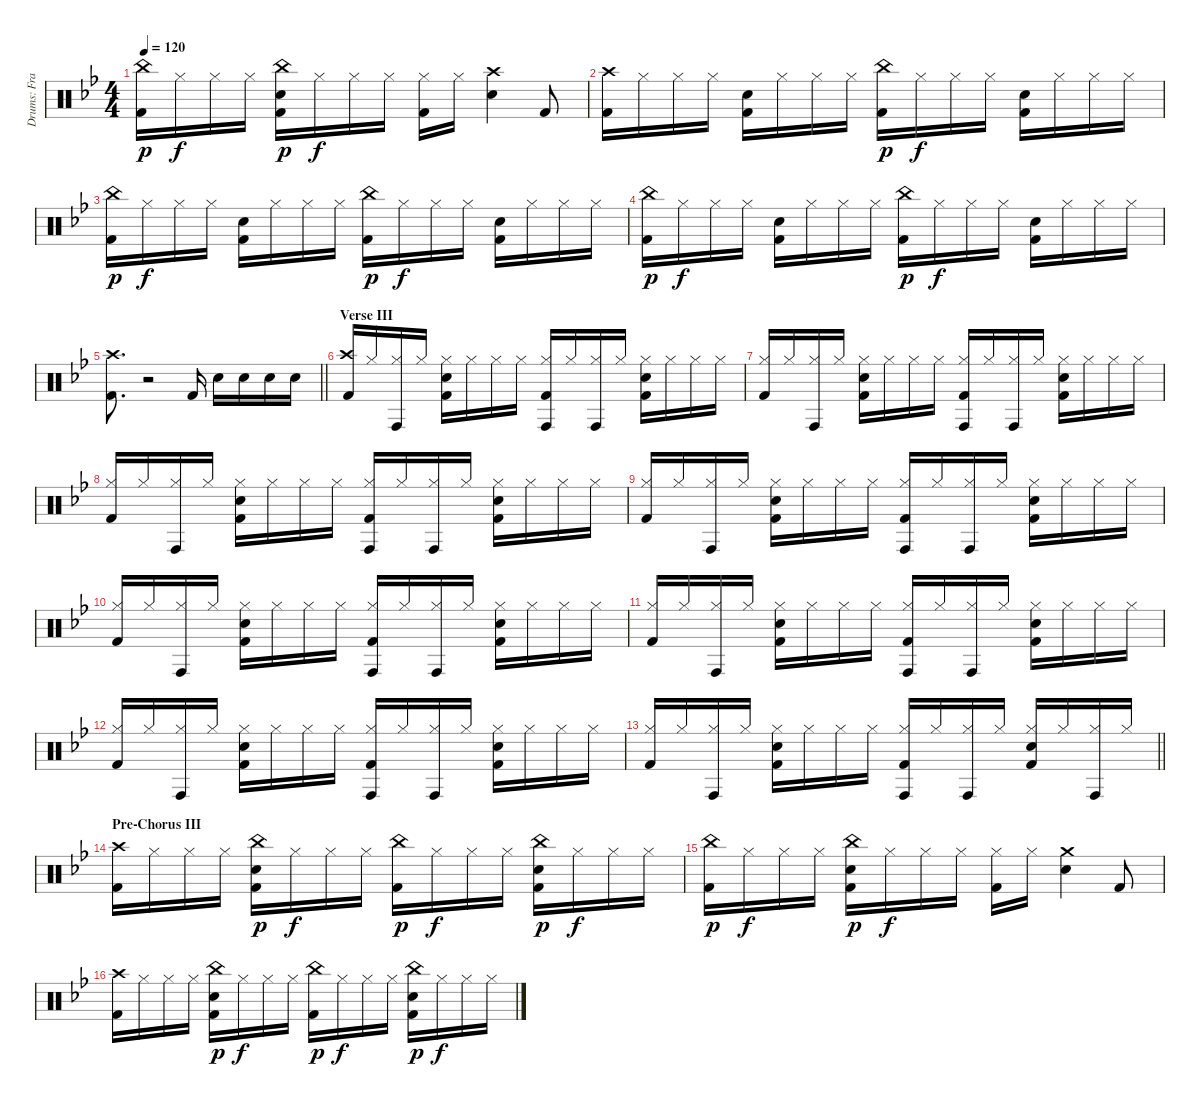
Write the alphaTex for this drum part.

\track ("Drums: Frank" "Drums: Fra") {instrument percussion}
\staff {score}
\articulation defaults
\ts (4 4)
\tempo 120
\clef neutral
\ks bb
("China (hit)" "Kick (hit) 2").16{dy p} "Hi-Hat (closed)".16{dy f} "Hi-Hat (closed)".16 "Hi-Hat (closed)".16 ("China (hit)" "Electric Snare (hit)" "Kick (hit) 2").16{dy p} "Hi-Hat (closed)".16{dy f} "Hi-Hat (closed)".16 "Hi-Hat (closed)".16 ("Hi-Hat (closed)" "Kick (hit) 2").16 "Hi-Hat (closed)".16 ("Crash high (hit)" "Electric Snare (hit)").4 "Kick (hit) 2".8 |
("Crash high (hit)" "Kick (hit) 2").16 "Hi-Hat (closed)".16 "Hi-Hat (closed)".16 "Hi-Hat (closed)".16 ("Electric Snare (hit)" "Kick (hit) 2").16 "Hi-Hat (closed)".16 "Hi-Hat (closed)".16 "Hi-Hat (closed)".16 ("China (hit)" "Kick (hit) 2").16{dy p} "Hi-Hat (closed)".16{dy f} "Hi-Hat (closed)".16 "Hi-Hat (closed)".16 ("Electric Snare (hit)" "Kick (hit) 2").16 "Hi-Hat (closed)".16 "Hi-Hat (closed)".16 "Hi-Hat (closed)".16 |
("China (hit)" "Kick (hit) 2").16{dy p} "Hi-Hat (closed)".16{dy f} "Hi-Hat (closed)".16 "Hi-Hat (closed)".16 ("Electric Snare (hit)" "Kick (hit) 2").16 "Hi-Hat (closed)".16 "Hi-Hat (closed)".16 "Hi-Hat (closed)".16 ("China (hit)" "Kick (hit) 2").16{dy p} "Hi-Hat (closed)".16{dy f} "Hi-Hat (closed)".16 "Hi-Hat (closed)".16 ("Electric Snare (hit)" "Kick (hit) 2").16 "Hi-Hat (closed)".16 "Hi-Hat (closed)".16 "Hi-Hat (closed)".16 |
("China (hit)" "Kick (hit) 2").16{dy p} "Hi-Hat (closed)".16{dy f} "Hi-Hat (closed)".16 "Hi-Hat (closed)".16 ("Electric Snare (hit)" "Kick (hit) 2").16 "Hi-Hat (closed)".16 "Hi-Hat (closed)".16 "Hi-Hat (closed)".16 ("China (hit)" "Kick (hit) 2").16{dy p} "Hi-Hat (closed)".16{dy f} "Hi-Hat (closed)".16 "Hi-Hat (closed)".16 ("Electric Snare (hit)" "Kick (hit) 2").16 "Hi-Hat (closed)".16 "Hi-Hat (closed)".16 "Hi-Hat (closed)".16 |
\barLineRight lightlight
("Crash high (hit)" "Kick (hit) 2").8{d} r.2 "Kick (hit) 2".16 "Snare (hit) 2".16 "Snare (hit) 2".16 "Snare (hit) 2".16 "Snare (hit) 2".16 |
\section ("" "Verse III")
("Crash high (hit)" "Kick (hit) 2").16 "Hi-Hat (closed)".16 ("Hi-Hat (closed)" "Conga high (hit)").16 "Hi-Hat (closed)".16 ("Hi-Hat (closed)" "Electric Snare (hit)" "Kick (hit) 2").16 "Hi-Hat (closed)".16 "Hi-Hat (closed)".16 "Hi-Hat (closed)".16 ("Hi-Hat (closed)" "Conga high (hit)" "Kick (hit) 2").16 "Hi-Hat (closed)".16 ("Hi-Hat (closed)" "Conga high (hit)").16 "Hi-Hat (closed)".16 ("Hi-Hat (closed)" "Electric Snare (hit)" "Kick (hit) 2").16 "Hi-Hat (closed)".16 "Hi-Hat (closed)".16 "Hi-Hat (closed)".16 |
("Hi-Hat (closed)" "Kick (hit) 2").16 "Hi-Hat (closed)".16 ("Hi-Hat (closed)" "Conga high (hit)").16 "Hi-Hat (closed)".16 ("Hi-Hat (closed)" "Electric Snare (hit)" "Kick (hit) 2").16 "Hi-Hat (closed)".16 "Hi-Hat (closed)".16 "Hi-Hat (closed)".16 ("Hi-Hat (closed)" "Conga high (hit)" "Kick (hit) 2").16 "Hi-Hat (closed)".16 ("Hi-Hat (closed)" "Conga high (hit)").16 "Hi-Hat (closed)".16 ("Hi-Hat (closed)" "Electric Snare (hit)" "Kick (hit) 2").16 "Hi-Hat (closed)".16 "Hi-Hat (closed)".16 "Hi-Hat (closed)".16 |
("Hi-Hat (closed)" "Kick (hit) 2").16 "Hi-Hat (closed)".16 ("Hi-Hat (closed)" "Conga high (hit)").16 "Hi-Hat (closed)".16 ("Hi-Hat (closed)" "Electric Snare (hit)" "Kick (hit) 2").16 "Hi-Hat (closed)".16 "Hi-Hat (closed)".16 "Hi-Hat (closed)".16 ("Hi-Hat (closed)" "Conga high (hit)" "Kick (hit) 2").16 "Hi-Hat (closed)".16 ("Hi-Hat (closed)" "Conga high (hit)").16 "Hi-Hat (closed)".16 ("Hi-Hat (closed)" "Electric Snare (hit)" "Kick (hit) 2").16 "Hi-Hat (closed)".16 "Hi-Hat (closed)".16 "Hi-Hat (closed)".16 |
("Hi-Hat (closed)" "Kick (hit) 2").16 "Hi-Hat (closed)".16 ("Hi-Hat (closed)" "Conga high (hit)").16 "Hi-Hat (closed)".16 ("Hi-Hat (closed)" "Electric Snare (hit)" "Kick (hit) 2").16 "Hi-Hat (closed)".16 "Hi-Hat (closed)".16 "Hi-Hat (closed)".16 ("Hi-Hat (closed)" "Conga high (hit)" "Kick (hit) 2").16 "Hi-Hat (closed)".16 ("Hi-Hat (closed)" "Conga high (hit)").16 "Hi-Hat (closed)".16 ("Hi-Hat (closed)" "Electric Snare (hit)" "Kick (hit) 2").16 "Hi-Hat (closed)".16 "Hi-Hat (closed)".16 "Hi-Hat (closed)".16 |
("Hi-Hat (closed)" "Kick (hit) 2").16 "Hi-Hat (closed)".16 ("Hi-Hat (closed)" "Conga high (hit)").16 "Hi-Hat (closed)".16 ("Hi-Hat (closed)" "Electric Snare (hit)" "Kick (hit) 2").16 "Hi-Hat (closed)".16 "Hi-Hat (closed)".16 "Hi-Hat (closed)".16 ("Hi-Hat (closed)" "Conga high (hit)" "Kick (hit) 2").16 "Hi-Hat (closed)".16 ("Hi-Hat (closed)" "Conga high (hit)").16 "Hi-Hat (closed)".16 ("Hi-Hat (closed)" "Electric Snare (hit)" "Kick (hit) 2").16 "Hi-Hat (closed)".16 "Hi-Hat (closed)".16 "Hi-Hat (closed)".16 |
("Hi-Hat (closed)" "Kick (hit) 2").16 "Hi-Hat (closed)".16 ("Hi-Hat (closed)" "Conga high (hit)").16 "Hi-Hat (closed)".16 ("Hi-Hat (closed)" "Electric Snare (hit)" "Kick (hit) 2").16 "Hi-Hat (closed)".16 "Hi-Hat (closed)".16 "Hi-Hat (closed)".16 ("Hi-Hat (closed)" "Conga high (hit)" "Kick (hit) 2").16 "Hi-Hat (closed)".16 ("Hi-Hat (closed)" "Conga high (hit)").16 "Hi-Hat (closed)".16 ("Hi-Hat (closed)" "Electric Snare (hit)" "Kick (hit) 2").16 "Hi-Hat (closed)".16 "Hi-Hat (closed)".16 "Hi-Hat (closed)".16 |
("Hi-Hat (closed)" "Kick (hit) 2").16 "Hi-Hat (closed)".16 ("Hi-Hat (closed)" "Conga high (hit)").16 "Hi-Hat (closed)".16 ("Hi-Hat (closed)" "Electric Snare (hit)" "Kick (hit) 2").16 "Hi-Hat (closed)".16 "Hi-Hat (closed)".16 "Hi-Hat (closed)".16 ("Hi-Hat (closed)" "Conga high (hit)" "Kick (hit) 2").16 "Hi-Hat (closed)".16 ("Hi-Hat (closed)" "Conga high (hit)").16 "Hi-Hat (closed)".16 ("Hi-Hat (closed)" "Electric Snare (hit)" "Kick (hit) 2").16 "Hi-Hat (closed)".16 "Hi-Hat (closed)".16 "Hi-Hat (closed)".16 |
\barLineRight lightlight
("Hi-Hat (closed)" "Kick (hit) 2").16 "Hi-Hat (closed)".16 ("Hi-Hat (closed)" "Conga high (hit)").16 "Hi-Hat (closed)".16 ("Hi-Hat (closed)" "Electric Snare (hit)" "Kick (hit) 2").16 "Hi-Hat (closed)".16 "Hi-Hat (closed)".16 "Hi-Hat (closed)".16 ("Hi-Hat (closed)" "Conga high (hit)" "Kick (hit) 2").16 "Hi-Hat (closed)".16 ("Hi-Hat (closed)" "Conga high (hit)").16 "Hi-Hat (closed)".16 ("Hi-Hat (closed)" "Electric Snare (hit)" "Kick (hit) 2").16 "Hi-Hat (closed)".16 ("Hi-Hat (closed)" "Conga high (hit)").16 "Hi-Hat (closed)".16 |
\section ("" "Pre-Chorus III")
("Crash high (hit)" "Kick (hit) 2").16 "Hi-Hat (closed)".16 "Hi-Hat (closed)".16 "Hi-Hat (closed)".16 ("China (hit)" "Electric Snare (hit)" "Kick (hit) 2").16{dy p} "Hi-Hat (closed)".16{dy f} "Hi-Hat (closed)".16 "Hi-Hat (closed)".16 ("China (hit)" "Kick (hit) 2").16{dy p} "Hi-Hat (closed)".16{dy f} "Hi-Hat (closed)".16 "Hi-Hat (closed)".16 ("China (hit)" "Electric Snare (hit)" "Kick (hit) 2").16{dy p} "Hi-Hat (closed)".16{dy f} "Hi-Hat (closed)".16 "Hi-Hat (closed)".16 |
("China (hit)" "Kick (hit) 2").16{dy p} "Hi-Hat (closed)".16{dy f} "Hi-Hat (closed)".16 "Hi-Hat (closed)".16 ("China (hit)" "Electric Snare (hit)" "Kick (hit) 2").16{dy p} "Hi-Hat (closed)".16{dy f} "Hi-Hat (closed)".16 "Hi-Hat (closed)".16 ("Hi-Hat (closed)" "Kick (hit) 2").16 "Hi-Hat (closed)".16 ("Crash medium (hit)" "Electric Snare (hit)").4 "Kick (hit) 2".8 |
("Crash high (hit)" "Kick (hit) 2").16 "Hi-Hat (closed)".16 "Hi-Hat (closed)".16 "Hi-Hat (closed)".16 ("China (hit)" "Electric Snare (hit)" "Kick (hit) 2").16{dy p} "Hi-Hat (closed)".16{dy f} "Hi-Hat (closed)".16 "Hi-Hat (closed)".16 ("China (hit)" "Kick (hit) 2").16{dy p} "Hi-Hat (closed)".16{dy f} "Hi-Hat (closed)".16 "Hi-Hat (closed)".16 ("China (hit)" "Electric Snare (hit)" "Kick (hit) 2").16{dy p} "Hi-Hat (closed)".16{dy f} "Hi-Hat (closed)".16 "Hi-Hat (closed)".16
